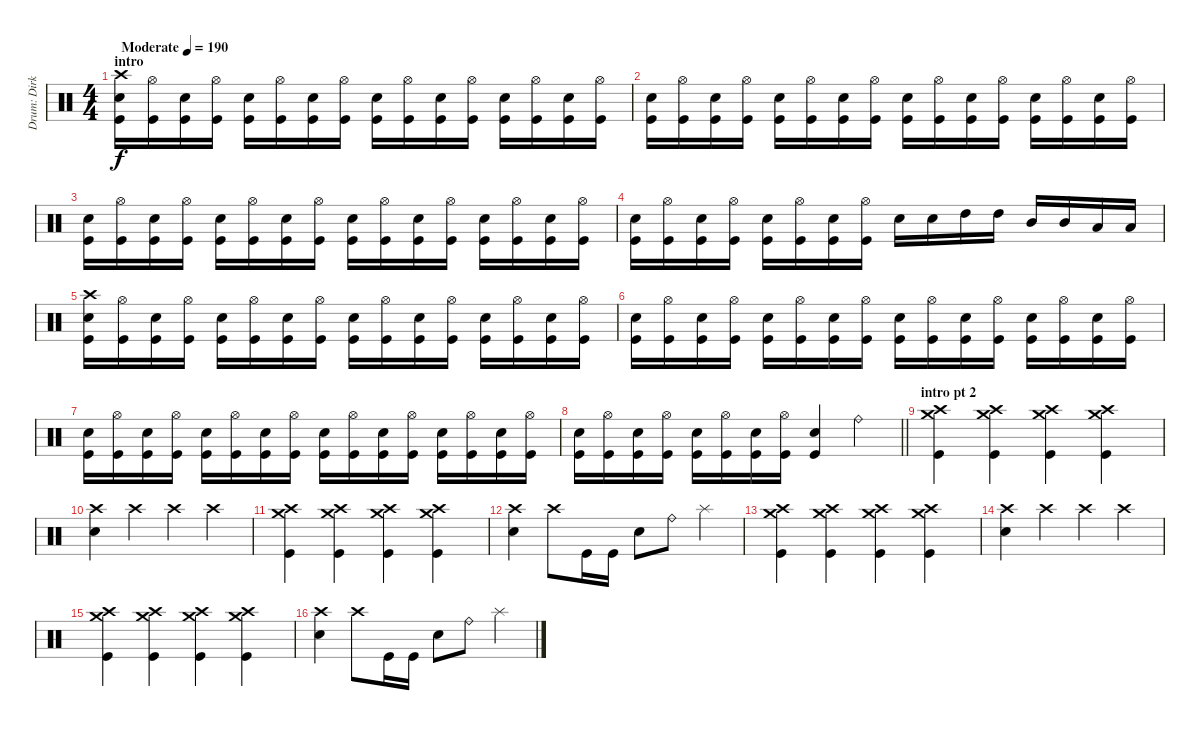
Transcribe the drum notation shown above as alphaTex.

\track ("Drum: Dirk" "Drum: Dirk") {instrument percussion}
\staff {score}
\articulation defaults
\ts (4 4)
\section ("" "intro")
\tempo (190 "Moderate")
\clef neutral
\ks c
("Crash high (hit)" "Electric Snare (hit)" "Kick (hit)").16{dy f} ("Hi-Hat (open)" "Kick (hit)").16 ("Electric Snare (hit)" "Kick (hit)").16 ("Hi-Hat (open)" "Kick (hit)").16 ("Electric Snare (hit)" "Kick (hit)").16 ("Hi-Hat (open)" "Kick (hit)").16 ("Electric Snare (hit)" "Kick (hit)").16 ("Hi-Hat (open)" "Kick (hit)").16 ("Electric Snare (hit)" "Kick (hit)").16 ("Hi-Hat (open)" "Kick (hit)").16 ("Electric Snare (hit)" "Kick (hit)").16 ("Hi-Hat (open)" "Kick (hit)").16 ("Electric Snare (hit)" "Kick (hit)").16 ("Hi-Hat (open)" "Kick (hit)").16 ("Electric Snare (hit)" "Kick (hit)").16 ("Hi-Hat (open)" "Kick (hit)").16 |
("Electric Snare (hit)" "Kick (hit)").16 ("Hi-Hat (open)" "Kick (hit)").16 ("Electric Snare (hit)" "Kick (hit)").16 ("Hi-Hat (open)" "Kick (hit)").16 ("Electric Snare (hit)" "Kick (hit)").16 ("Hi-Hat (open)" "Kick (hit)").16 ("Electric Snare (hit)" "Kick (hit)").16 ("Hi-Hat (open)" "Kick (hit)").16 ("Electric Snare (hit)" "Kick (hit)").16 ("Hi-Hat (open)" "Kick (hit)").16 ("Electric Snare (hit)" "Kick (hit)").16 ("Hi-Hat (open)" "Kick (hit)").16 ("Electric Snare (hit)" "Kick (hit)").16 ("Hi-Hat (open)" "Kick (hit)").16 ("Electric Snare (hit)" "Kick (hit)").16 ("Hi-Hat (open)" "Kick (hit)").16 |
("Electric Snare (hit)" "Kick (hit)").16 ("Hi-Hat (open)" "Kick (hit)").16 ("Electric Snare (hit)" "Kick (hit)").16 ("Hi-Hat (open)" "Kick (hit)").16 ("Electric Snare (hit)" "Kick (hit)").16 ("Hi-Hat (open)" "Kick (hit)").16 ("Electric Snare (hit)" "Kick (hit)").16 ("Hi-Hat (open)" "Kick (hit)").16 ("Electric Snare (hit)" "Kick (hit)").16 ("Hi-Hat (open)" "Kick (hit)").16 ("Electric Snare (hit)" "Kick (hit)").16 ("Hi-Hat (open)" "Kick (hit)").16 ("Electric Snare (hit)" "Kick (hit)").16 ("Hi-Hat (open)" "Kick (hit)").16 ("Electric Snare (hit)" "Kick (hit)").16 ("Hi-Hat (open)" "Kick (hit)").16 |
("Electric Snare (hit)" "Kick (hit)").16 ("Hi-Hat (open)" "Kick (hit)").16 ("Electric Snare (hit)" "Kick (hit)").16 ("Hi-Hat (open)" "Kick (hit)").16 ("Electric Snare (hit)" "Kick (hit)").16 ("Hi-Hat (open)" "Kick (hit)").16 ("Electric Snare (hit)" "Kick (hit)").16 ("Hi-Hat (open)" "Kick (hit)").16 "Electric Snare (hit)".16 "Electric Snare (hit)".16 "High Tom (hit)".16 "High Tom (hit)".16 "Mid Tom (hit)".16 "Mid Tom (hit)".16 "Low Tom (hit)".16 "Low Tom (hit)".16 |
("Crash high (hit)" "Electric Snare (hit)" "Kick (hit)").16 ("Hi-Hat (open)" "Kick (hit)").16 ("Electric Snare (hit)" "Kick (hit)").16 ("Hi-Hat (open)" "Kick (hit)").16 ("Electric Snare (hit)" "Kick (hit)").16 ("Hi-Hat (open)" "Kick (hit)").16 ("Electric Snare (hit)" "Kick (hit)").16 ("Hi-Hat (open)" "Kick (hit)").16 ("Electric Snare (hit)" "Kick (hit)").16 ("Hi-Hat (open)" "Kick (hit)").16 ("Electric Snare (hit)" "Kick (hit)").16 ("Hi-Hat (open)" "Kick (hit)").16 ("Electric Snare (hit)" "Kick (hit)").16 ("Hi-Hat (open)" "Kick (hit)").16 ("Electric Snare (hit)" "Kick (hit)").16 ("Hi-Hat (open)" "Kick (hit)").16 |
("Electric Snare (hit)" "Kick (hit)").16 ("Hi-Hat (open)" "Kick (hit)").16 ("Electric Snare (hit)" "Kick (hit)").16 ("Hi-Hat (open)" "Kick (hit)").16 ("Electric Snare (hit)" "Kick (hit)").16 ("Hi-Hat (open)" "Kick (hit)").16 ("Electric Snare (hit)" "Kick (hit)").16 ("Hi-Hat (open)" "Kick (hit)").16 ("Electric Snare (hit)" "Kick (hit)").16 ("Hi-Hat (open)" "Kick (hit)").16 ("Electric Snare (hit)" "Kick (hit)").16 ("Hi-Hat (open)" "Kick (hit)").16 ("Electric Snare (hit)" "Kick (hit)").16 ("Hi-Hat (open)" "Kick (hit)").16 ("Electric Snare (hit)" "Kick (hit)").16 ("Hi-Hat (open)" "Kick (hit)").16 |
("Electric Snare (hit)" "Kick (hit)").16 ("Hi-Hat (open)" "Kick (hit)").16 ("Electric Snare (hit)" "Kick (hit)").16 ("Hi-Hat (open)" "Kick (hit)").16 ("Electric Snare (hit)" "Kick (hit)").16 ("Hi-Hat (open)" "Kick (hit)").16 ("Electric Snare (hit)" "Kick (hit)").16 ("Hi-Hat (open)" "Kick (hit)").16 ("Electric Snare (hit)" "Kick (hit)").16 ("Hi-Hat (open)" "Kick (hit)").16 ("Electric Snare (hit)" "Kick (hit)").16 ("Hi-Hat (open)" "Kick (hit)").16 ("Electric Snare (hit)" "Kick (hit)").16 ("Hi-Hat (open)" "Kick (hit)").16 ("Electric Snare (hit)" "Kick (hit)").16 ("Hi-Hat (open)" "Kick (hit)").16 |
\barLineRight lightlight
("Electric Snare (hit)" "Kick (hit)").16 ("Hi-Hat (open)" "Kick (hit)").16 ("Electric Snare (hit)" "Kick (hit)").16 ("Hi-Hat (open)" "Kick (hit)").16 ("Electric Snare (hit)" "Kick (hit)").16 ("Hi-Hat (open)" "Kick (hit)").16 ("Electric Snare (hit)" "Kick (hit)").16 ("Hi-Hat (open)" "Kick (hit)").16 ("Electric Snare (hit)" "Kick (hit)").4 "Ride (bell)".4 |
\section ("" "intro pt 2")
("Crash high (hit)" "Crash medium (hit)" "Kick (hit)").4 ("Crash high (hit)" "Crash medium (hit)" "Kick (hit)").4 ("Crash high (hit)" "Crash medium (hit)" "Kick (hit)").4 ("Crash high (hit)" "Crash medium (hit)" "Kick (hit)").4 |
("Crash high (hit)" "Electric Snare (hit)").4 "Crash high (hit)".4 "Crash high (hit)".4 "Crash high (hit)".4 |
("Crash high (hit)" "Crash medium (hit)" "Kick (hit)").4 ("Crash high (hit)" "Crash medium (hit)" "Kick (hit)").4 ("Crash high (hit)" "Crash medium (hit)" "Kick (hit)").4 ("Crash high (hit)" "Crash medium (hit)" "Kick (hit)").4 |
("Crash high (hit)" "Electric Snare (hit)").4 "Crash high (hit)".8 "Kick (hit)".16 "Kick (hit)".16 "Electric Snare (hit)".8 "Ride (bell)".8 "Splash (hit)".4 |
("Crash high (hit)" "Crash medium (hit)" "Kick (hit)").4 ("Crash high (hit)" "Crash medium (hit)" "Kick (hit)").4 ("Crash high (hit)" "Crash medium (hit)" "Kick (hit)").4 ("Crash high (hit)" "Crash medium (hit)" "Kick (hit)").4 |
("Crash high (hit)" "Electric Snare (hit)").4 "Crash high (hit)".4 "Crash high (hit)".4 "Crash high (hit)".4 |
("Crash high (hit)" "Crash medium (hit)" "Kick (hit)").4 ("Crash high (hit)" "Crash medium (hit)" "Kick (hit)").4 ("Crash high (hit)" "Crash medium (hit)" "Kick (hit)").4 ("Crash high (hit)" "Crash medium (hit)" "Kick (hit)").4 |
("Crash high (hit)" "Electric Snare (hit)").4 "Crash high (hit)".8 "Kick (hit)".16 "Kick (hit)".16 "Electric Snare (hit)".8 "Ride (bell)".8 "Splash (hit)".4
